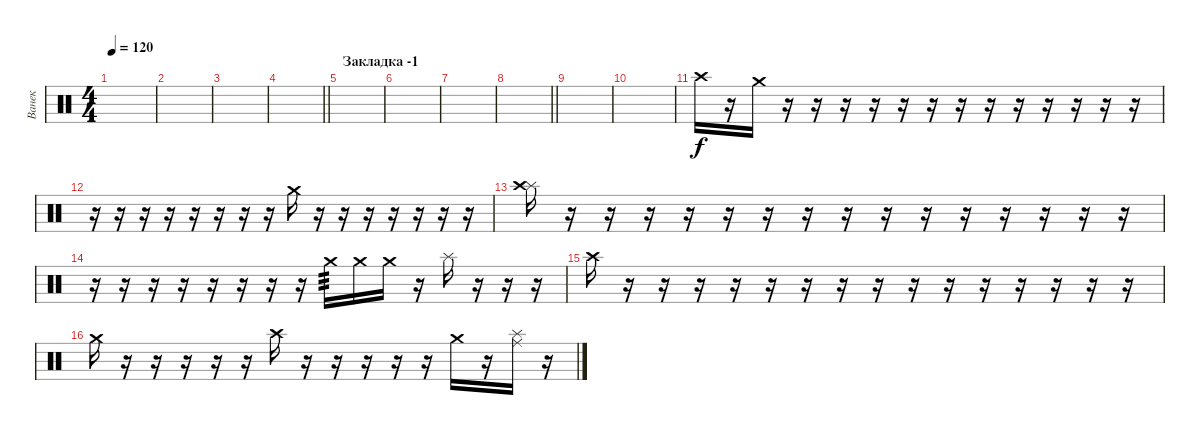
\track ("Ванек" "Ванек") {instrument percussion}
\staff {score}
\articulation defaults
\ts (4 4)
\tempo 120
\clef neutral
\ks c
|
|
|
\barLineRight lightlight
|
\section ("" "Закладка -1")
|
|
|
\barLineRight lightlight
|
|
|
"Crash high (hit)".16 r.16 "Crash medium (hit)".16 r.16 r.16 r.16{volume 10} r.16 r.16 r.16 r.16 r.16 r.16 r.16 r.16 r.16 r.16 |
r.16 r.16 r.16 r.16 r.16 r.16 r.16 r.16 "Crash medium (hit)".16 r.16 r.16 r.16 r.16 r.16 r.16 r.16 |
("Splash (hit)" "Crash high (hit)").16 r.16 r.16 r.16 r.16 r.16 r.16 r.16 r.16 r.16 r.16 r.16 r.16 r.16 r.16 r.16 |
r.16 r.16 r.16 r.16 r.16 r.16 r.16 r.16 "Crash medium (hit)".16{tp 3} "Crash medium (hit)".16 "Crash medium (hit)".16 r.16 "Splash (hit)".16 r.16 r.16 r.16 |
"Crash high (hit)".16 r.16 r.16 r.16 r.16 r.16 r.16 r.16 r.16 r.16 r.16 r.16 r.16 r.16 r.16 r.16 |
"Crash medium (hit)".16 r.16 r.16 r.16 r.16 r.16 "Crash high (hit)".16 r.16 r.16 r.16 r.16 r.16 "Crash medium (hit)".16 r.16 ("Ride (middle)" "Splash (hit)").16 r.16
